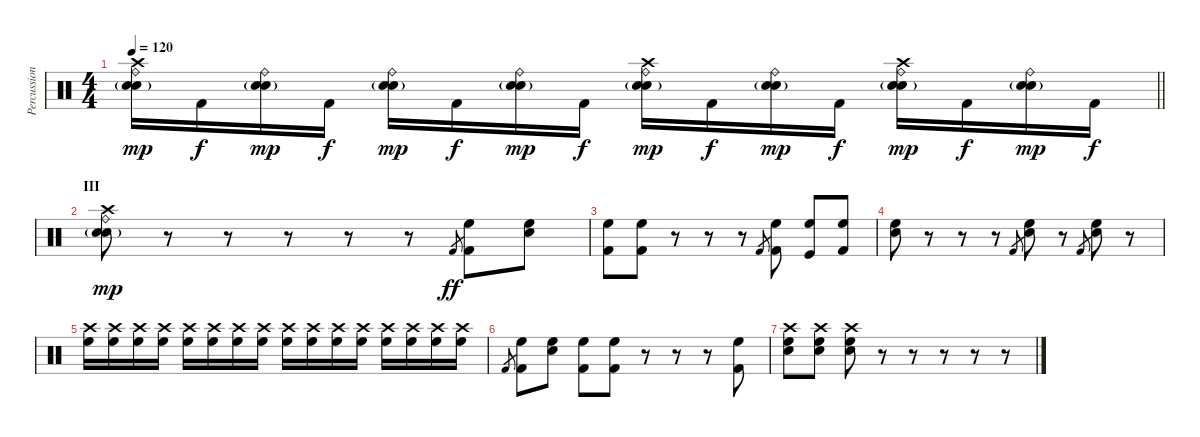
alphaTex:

\track ("Percussion" "Percussion") {instrument percussion}
\staff {score}
\articulation defaults
\ts (4 4)
\tempo 120
\clef neutral
\barLineRight lightlight
\ks c
("Crash high (hit)" "Electric Snare (hit)" "Snare (hit) 2"{g} "Ride (bell)").16{dy mp} "Kick (hit) 2".16{dy f} ("Electric Snare (hit)" "Snare (hit) 2"{g} "Ride (bell)").16{dy mp} "Kick (hit) 2".16{dy f} ("Electric Snare (hit)" "Snare (hit) 2"{g} "Ride (bell)").16{dy mp} "Kick (hit) 2".16{dy f} ("Electric Snare (hit)" "Snare (hit) 2"{g} "Ride (bell)").16{dy mp} "Kick (hit) 2".16{dy f} ("Crash high (hit)" "Electric Snare (hit)" "Snare (hit) 2"{g} "Ride (bell)").16{dy mp} "Kick (hit) 2".16{dy f} ("Electric Snare (hit)" "Snare (hit) 2"{g} "Ride (bell)").16{dy mp} "Kick (hit) 2".16{dy f} ("Crash high (hit)" "Electric Snare (hit)" "Snare (hit) 2"{g} "Ride (bell)").16{dy mp} "Kick (hit) 2".16{dy f} ("Electric Snare (hit)" "Snare (hit) 2"{g} "Ride (bell)").16{dy mp} "Kick (hit) 2".16{dy f} |
\section ("" "III")
("Crash high (hit)" "Electric Snare (hit)" "Snare (hit) 2"{g} "Ride (bell)").8{dy mp} r.8 r.8 r.8 r.8 r.8 "Kick (hit) 2".8{gr dy ff} ("Kick (hit) 2" "High Floor Tom (hit)").8 ("Electric Snare (hit)" "High Floor Tom (hit)").8 |
("Kick (hit) 2" "High Floor Tom (hit)").8 ("Kick (hit) 2" "High Floor Tom (hit)").8 r.8 r.8 r.8 "Kick (hit) 2".8{gr} ("Kick (hit) 2" "High Floor Tom (hit)").8 ("Kick (hit)" "High Floor Tom (hit)").8 ("Kick (hit) 2" "High Floor Tom (hit)").8 |
("Electric Snare (hit)" "High Floor Tom (hit)").8 r.8 r.8 r.8 "Kick (hit) 2".8{gr} ("Electric Snare (hit)" "High Floor Tom (hit)").8 r.8 "Kick (hit) 2".8{gr} ("Electric Snare (hit)" "High Floor Tom (hit)").8 r.8 |
("Crash high (hit)" "High Floor Tom (hit)").16 ("Crash high (hit)" "High Floor Tom (hit)").16 ("Crash high (hit)" "High Floor Tom (hit)").16 ("Crash high (hit)" "High Floor Tom (hit)").16 ("Crash high (hit)" "High Floor Tom (hit)").16 ("Crash high (hit)" "High Floor Tom (hit)").16 ("Crash high (hit)" "High Floor Tom (hit)").16 ("Crash high (hit)" "High Floor Tom (hit)").16 ("Crash high (hit)" "High Floor Tom (hit)").16 ("Crash high (hit)" "High Floor Tom (hit)").16 ("Crash high (hit)" "High Floor Tom (hit)").16 ("Crash high (hit)" "High Floor Tom (hit)").16 ("Crash high (hit)" "High Floor Tom (hit)").16 ("Crash high (hit)" "High Floor Tom (hit)").16 ("Crash high (hit)" "High Floor Tom (hit)").16 ("Crash high (hit)" "High Floor Tom (hit)").16 |
"Kick (hit) 2".8{gr} ("Kick (hit) 2" "High Floor Tom (hit)").8 ("Electric Snare (hit)" "High Floor Tom (hit)").8 ("Kick (hit) 2" "High Floor Tom (hit)").8 ("Kick (hit) 2" "High Floor Tom (hit)").8 r.8 r.8 r.8 ("Kick (hit) 2" "High Floor Tom (hit)").8 |
("Crash high (hit)" "Electric Snare (hit)" "High Floor Tom (hit)").8 ("Crash high (hit)" "Electric Snare (hit)" "High Floor Tom (hit)").8 ("Crash high (hit)" "Electric Snare (hit)" "High Floor Tom (hit)").8 r.8 r.8 r.8 r.8 r.8
